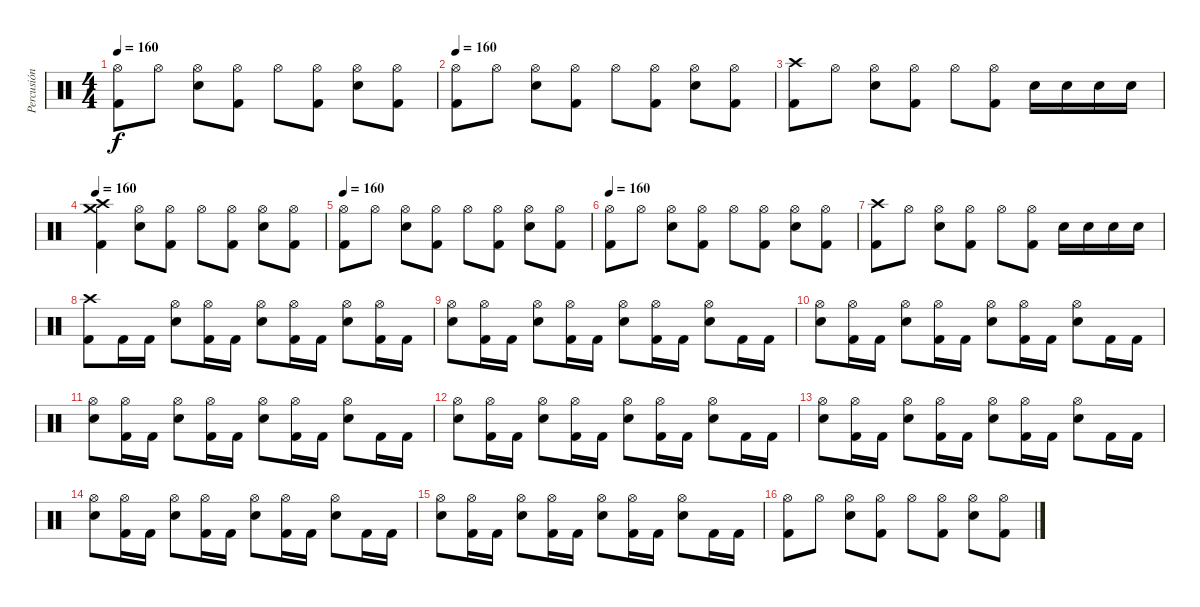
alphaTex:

\track ("Percusión" "Percusión") {instrument percussion}
\staff {score}
\articulation defaults
\ts (4 4)
\tempo 160
\clef neutral
\ks c
("Hi-Hat (open)" "Kick (hit) 2").8{dy f} "Hi-Hat (open)".8 ("Hi-Hat (open)" "Snare (hit) 2").8 ("Hi-Hat (open)" "Kick (hit) 2").8 "Hi-Hat (open)".8 ("Hi-Hat (open)" "Kick (hit) 2").8 ("Hi-Hat (open)" "Snare (hit) 2").8 ("Hi-Hat (open)" "Kick (hit) 2").8 |
\tempo 160
("Hi-Hat (open)" "Kick (hit) 2").8 "Hi-Hat (open)".8 ("Hi-Hat (open)" "Snare (hit) 2").8 ("Hi-Hat (open)" "Kick (hit) 2").8 "Hi-Hat (open)".8 ("Hi-Hat (open)" "Kick (hit) 2").8 ("Hi-Hat (open)" "Snare (hit) 2").8 ("Hi-Hat (open)" "Kick (hit) 2").8 |
("Crash high (hit)" "Kick (hit) 2").8 "Hi-Hat (open)".8 ("Hi-Hat (open)" "Snare (hit) 2").8 ("Hi-Hat (open)" "Kick (hit) 2").8 "Hi-Hat (open)".8 ("Hi-Hat (open)" "Kick (hit) 2").8 "Snare (hit) 2".16 "Snare (hit) 2".16 "Snare (hit) 2".16 "Snare (hit) 2".16 |
\tempo 160
("Crash high (hit)" "Crash medium (hit)" "Kick (hit) 2").4 ("Hi-Hat (open)" "Snare (hit) 2").8 ("Hi-Hat (open)" "Kick (hit) 2").8 "Hi-Hat (open)".8 ("Hi-Hat (open)" "Kick (hit) 2").8 ("Hi-Hat (open)" "Snare (hit) 2").8 ("Hi-Hat (open)" "Kick (hit) 2").8 |
\tempo 160
("Hi-Hat (open)" "Kick (hit) 2").8 "Hi-Hat (open)".8 ("Hi-Hat (open)" "Snare (hit) 2").8 ("Hi-Hat (open)" "Kick (hit) 2").8 "Hi-Hat (open)".8 ("Hi-Hat (open)" "Kick (hit) 2").8 ("Hi-Hat (open)" "Snare (hit) 2").8 ("Hi-Hat (open)" "Kick (hit) 2").8 |
\tempo 160
("Hi-Hat (open)" "Kick (hit) 2").8 "Hi-Hat (open)".8 ("Hi-Hat (open)" "Snare (hit) 2").8 ("Hi-Hat (open)" "Kick (hit) 2").8 "Hi-Hat (open)".8 ("Hi-Hat (open)" "Kick (hit) 2").8 ("Hi-Hat (open)" "Snare (hit) 2").8 ("Hi-Hat (open)" "Kick (hit) 2").8 |
("Crash high (hit)" "Kick (hit) 2").8 "Hi-Hat (open)".8 ("Hi-Hat (open)" "Snare (hit) 2").8 ("Hi-Hat (open)" "Kick (hit) 2").8 "Hi-Hat (open)".8 ("Hi-Hat (open)" "Kick (hit) 2").8 "Snare (hit) 2".16 "Snare (hit) 2".16 "Snare (hit) 2".16 "Snare (hit) 2".16 |
("Crash high (hit)" "Kick (hit) 2").8 "Kick (hit) 2".16 "Kick (hit) 2".16 ("Hi-Hat (open)" "Snare (hit) 2").8 ("Hi-Hat (open)" "Kick (hit) 2").16 "Kick (hit) 2".16 ("Hi-Hat (open)" "Snare (hit) 2").8 ("Hi-Hat (open)" "Kick (hit) 2").16 "Kick (hit) 2".16 ("Hi-Hat (open)" "Snare (hit) 2").8 ("Hi-Hat (open)" "Kick (hit) 2").16 "Kick (hit) 2".16 |
("Hi-Hat (open)" "Snare (hit) 2").8 ("Hi-Hat (open)" "Kick (hit) 2").16 "Kick (hit) 2".16 ("Hi-Hat (open)" "Snare (hit) 2").8 ("Hi-Hat (open)" "Kick (hit) 2").16 "Kick (hit) 2".16 ("Hi-Hat (open)" "Snare (hit) 2").8 ("Hi-Hat (open)" "Kick (hit) 2").16 "Kick (hit) 2".16 ("Hi-Hat (open)" "Snare (hit) 2").8 "Kick (hit) 2".16 "Kick (hit) 2".16 |
("Hi-Hat (open)" "Snare (hit) 2").8 ("Hi-Hat (open)" "Kick (hit) 2").16 "Kick (hit) 2".16 ("Hi-Hat (open)" "Snare (hit) 2").8 ("Hi-Hat (open)" "Kick (hit) 2").16 "Kick (hit) 2".16 ("Hi-Hat (open)" "Snare (hit) 2").8 ("Hi-Hat (open)" "Kick (hit) 2").16 "Kick (hit) 2".16 ("Hi-Hat (open)" "Snare (hit) 2").8 "Kick (hit) 2".16 "Kick (hit) 2".16 |
("Hi-Hat (open)" "Snare (hit) 2").8 ("Hi-Hat (open)" "Kick (hit) 2").16 "Kick (hit) 2".16 ("Hi-Hat (open)" "Snare (hit) 2").8 ("Hi-Hat (open)" "Kick (hit) 2").16 "Kick (hit) 2".16 ("Hi-Hat (open)" "Snare (hit) 2").8 ("Hi-Hat (open)" "Kick (hit) 2").16 "Kick (hit) 2".16 ("Hi-Hat (open)" "Snare (hit) 2").8 "Kick (hit) 2".16 "Kick (hit) 2".16 |
("Hi-Hat (open)" "Snare (hit) 2").8 ("Hi-Hat (open)" "Kick (hit) 2").16 "Kick (hit) 2".16 ("Hi-Hat (open)" "Snare (hit) 2").8 ("Hi-Hat (open)" "Kick (hit) 2").16 "Kick (hit) 2".16 ("Hi-Hat (open)" "Snare (hit) 2").8 ("Hi-Hat (open)" "Kick (hit) 2").16 "Kick (hit) 2".16 ("Hi-Hat (open)" "Snare (hit) 2").8 "Kick (hit) 2".16 "Kick (hit) 2".16 |
("Hi-Hat (open)" "Snare (hit) 2").8 ("Hi-Hat (open)" "Kick (hit) 2").16 "Kick (hit) 2".16 ("Hi-Hat (open)" "Snare (hit) 2").8 ("Hi-Hat (open)" "Kick (hit) 2").16 "Kick (hit) 2".16 ("Hi-Hat (open)" "Snare (hit) 2").8 ("Hi-Hat (open)" "Kick (hit) 2").16 "Kick (hit) 2".16 ("Hi-Hat (open)" "Snare (hit) 2").8 "Kick (hit) 2".16 "Kick (hit) 2".16 |
("Hi-Hat (open)" "Snare (hit) 2").8 ("Hi-Hat (open)" "Kick (hit) 2").16 "Kick (hit) 2".16 ("Hi-Hat (open)" "Snare (hit) 2").8 ("Hi-Hat (open)" "Kick (hit) 2").16 "Kick (hit) 2".16 ("Hi-Hat (open)" "Snare (hit) 2").8 ("Hi-Hat (open)" "Kick (hit) 2").16 "Kick (hit) 2".16 ("Hi-Hat (open)" "Snare (hit) 2").8 "Kick (hit) 2".16 "Kick (hit) 2".16 |
("Hi-Hat (open)" "Snare (hit) 2").8 ("Hi-Hat (open)" "Kick (hit) 2").16 "Kick (hit) 2".16 ("Hi-Hat (open)" "Snare (hit) 2").8 ("Hi-Hat (open)" "Kick (hit) 2").16 "Kick (hit) 2".16 ("Hi-Hat (open)" "Snare (hit) 2").8 ("Hi-Hat (open)" "Kick (hit) 2").16 "Kick (hit) 2".16 ("Hi-Hat (open)" "Snare (hit) 2").8 "Kick (hit) 2".16 "Kick (hit) 2".16 |
("Hi-Hat (open)" "Kick (hit) 2").8 "Hi-Hat (open)".8 ("Hi-Hat (open)" "Snare (hit) 2").8 ("Hi-Hat (open)" "Kick (hit) 2").8 "Hi-Hat (open)".8 ("Hi-Hat (open)" "Kick (hit) 2").8 ("Hi-Hat (open)" "Snare (hit) 2").8 ("Hi-Hat (open)" "Kick (hit) 2").8
